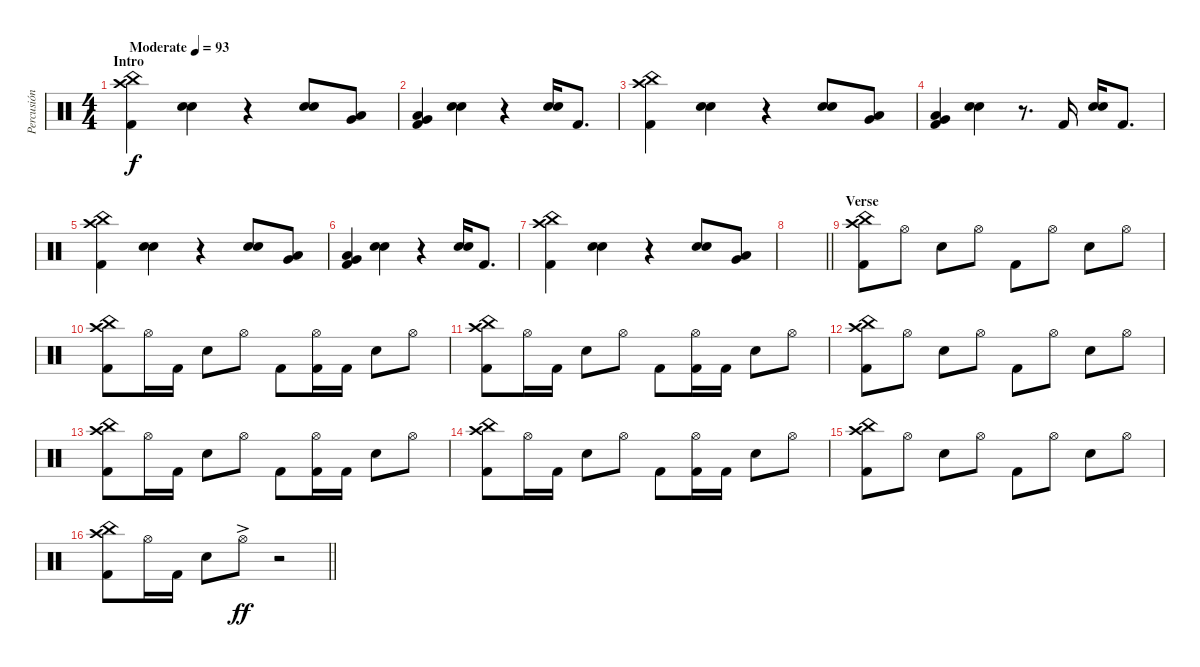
\track ("Percusión" "Percusión") {instrument percussion}
\staff {score}
\articulation defaults
\ts (4 4)
\section ("" "Intro")
\tempo (93 "Moderate")
\clef neutral
\ks c
("China (hit)" "Kick (hit) 2" "Crash high (hit)").4{dy f} ("Electric Snare (hit)" "Snare (hit) 2").4 r.4 ("Electric Snare (hit)" "Snare (hit) 2").8 ("Low Tom (hit)" "Very Low Tom (hit)").8 |
("Low Tom (hit)" "Very Low Tom (hit)" "Kick (hit) 2").4 ("Electric Snare (hit)" "Snare (hit) 2").4 r.4 ("Electric Snare (hit)" "Snare (hit) 2").16 "Kick (hit) 2".8{d} |
("China (hit)" "Kick (hit) 2" "Crash high (hit)").4 ("Electric Snare (hit)" "Snare (hit) 2").4 r.4 ("Electric Snare (hit)" "Snare (hit) 2").8 ("Low Tom (hit)" "Very Low Tom (hit)").8 |
("Low Tom (hit)" "Very Low Tom (hit)" "Kick (hit) 2").4 ("Electric Snare (hit)" "Snare (hit) 2").4 r.8{d} "Kick (hit) 2".16 ("Electric Snare (hit)" "Snare (hit) 2").16 "Kick (hit) 2".8{d} |
("China (hit)" "Kick (hit) 2" "Crash high (hit)").4 ("Electric Snare (hit)" "Snare (hit) 2").4 r.4 ("Electric Snare (hit)" "Snare (hit) 2").8 ("Low Tom (hit)" "Very Low Tom (hit)").8 |
("Low Tom (hit)" "Very Low Tom (hit)" "Kick (hit) 2").4 ("Electric Snare (hit)" "Snare (hit) 2").4 r.4 ("Electric Snare (hit)" "Snare (hit) 2").16 "Kick (hit) 2".8{d} |
("China (hit)" "Kick (hit) 2" "Crash high (hit)").4 ("Electric Snare (hit)" "Snare (hit) 2").4 r.4 ("Electric Snare (hit)" "Snare (hit) 2").8 ("Low Tom (hit)" "Very Low Tom (hit)").8 |
\barLineRight lightlight
|
\section ("" "Verse")
("China (hit)" "Kick (hit) 2" "Crash high (hit)").8 "Hi-Hat (open)".8 "Snare (hit) 2".8 "Hi-Hat (open)".8 "Kick (hit) 2".8 "Hi-Hat (open)".8 "Snare (hit) 2".8 "Hi-Hat (open)".8 |
("China (hit)" "Kick (hit) 2" "Crash high (hit)").8 "Hi-Hat (open)".16 "Kick (hit) 2".16 "Snare (hit) 2".8 "Hi-Hat (open)".8 "Kick (hit) 2".8 ("Hi-Hat (open)" "Kick (hit) 2").16 "Kick (hit) 2".16 "Snare (hit) 2".8 "Hi-Hat (open)".8 |
("China (hit)" "Kick (hit) 2" "Crash high (hit)").8 "Hi-Hat (open)".16 "Kick (hit) 2".16 "Snare (hit) 2".8 "Hi-Hat (open)".8 "Kick (hit) 2".8 ("Hi-Hat (open)" "Kick (hit) 2").16 "Kick (hit) 2".16 "Snare (hit) 2".8 "Hi-Hat (open)".8 |
("China (hit)" "Kick (hit) 2" "Crash high (hit)").8 "Hi-Hat (open)".8 "Snare (hit) 2".8 "Hi-Hat (open)".8 "Kick (hit) 2".8 "Hi-Hat (open)".8 "Snare (hit) 2".8 "Hi-Hat (open)".8 |
("China (hit)" "Kick (hit) 2" "Crash high (hit)").8 "Hi-Hat (open)".16 "Kick (hit) 2".16 "Snare (hit) 2".8 "Hi-Hat (open)".8 "Kick (hit) 2".8 ("Hi-Hat (open)" "Kick (hit) 2").16 "Kick (hit) 2".16 "Snare (hit) 2".8 "Hi-Hat (open)".8 |
("China (hit)" "Kick (hit) 2" "Crash high (hit)").8 "Hi-Hat (open)".16 "Kick (hit) 2".16 "Snare (hit) 2".8 "Hi-Hat (open)".8 "Kick (hit) 2".8 ("Hi-Hat (open)" "Kick (hit) 2").16 "Kick (hit) 2".16 "Snare (hit) 2".8 "Hi-Hat (open)".8 |
("China (hit)" "Kick (hit) 2" "Crash high (hit)").8 "Hi-Hat (open)".8 "Snare (hit) 2".8 "Hi-Hat (open)".8 "Kick (hit) 2".8 "Hi-Hat (open)".8 "Snare (hit) 2".8 "Hi-Hat (open)".8 |
\barLineRight lightlight
("China (hit)" "Kick (hit) 2" "Crash high (hit)").8 "Hi-Hat (open)".16 "Kick (hit) 2".16 "Snare (hit) 2".8 "Hi-Hat (open)"{ac}.8{dy ff} r.2
